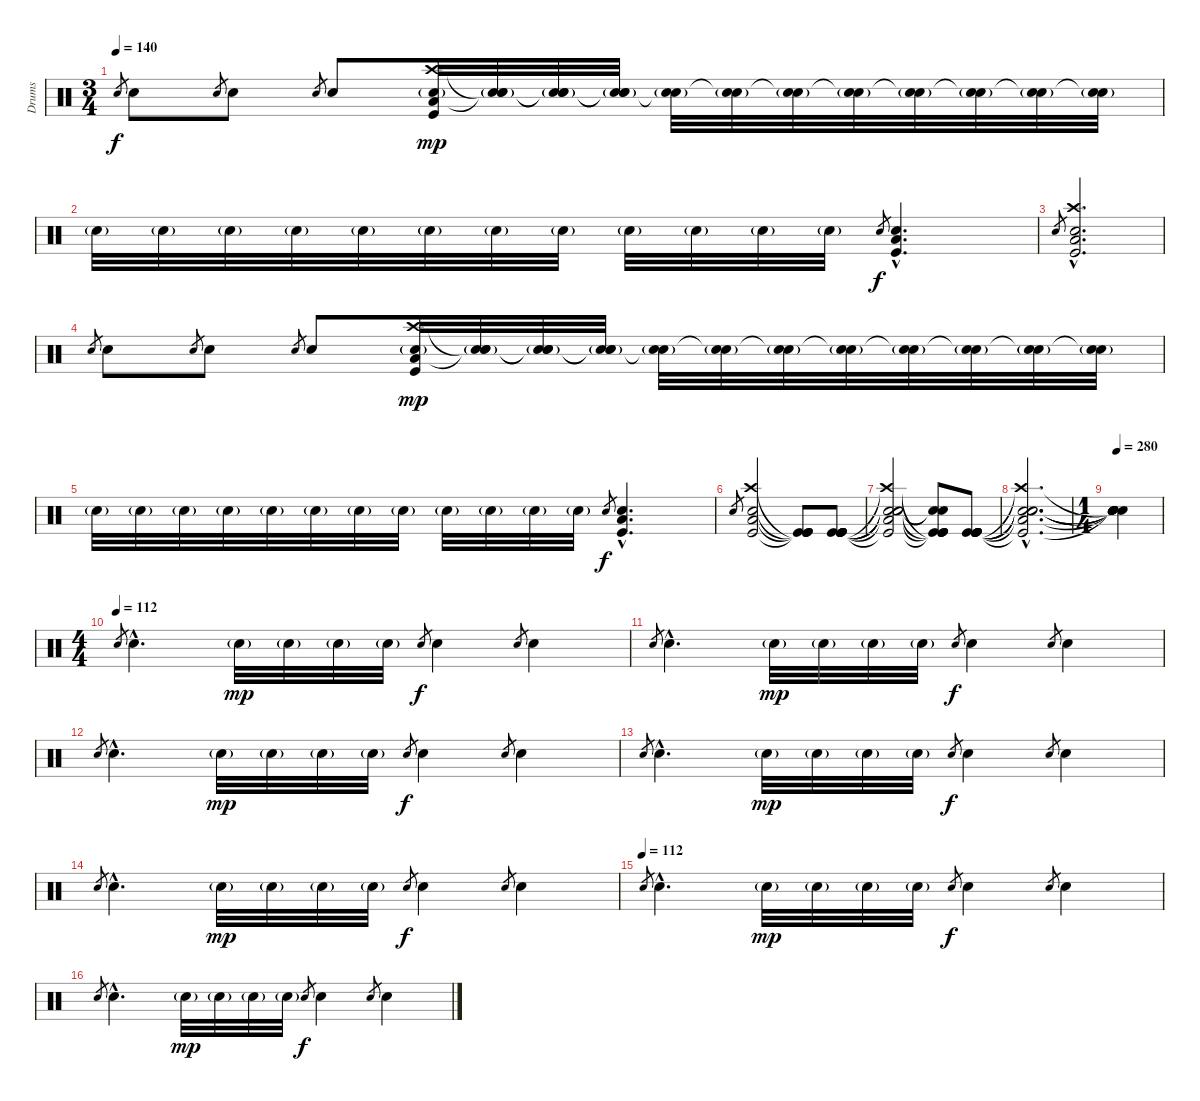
\track ("Drums" "Drums") {instrument percussion}
\staff {score}
\articulation defaults
\ts (3 4)
\tempo 140
\clef neutral
\ks c "Snare (hit) 2".8{gr dy f} "Snare (hit) 2".8 "Snare (hit) 2".8{gr} "Snare (hit) 2".8 "Snare (hit) 2".8{gr} "Snare (hit) 2".8
("Crash high (hit)" "Snare (hit) 2"{g} "Low Floor Tom (hit)" "Kick (hit)").32{dy mp} ("Snare (hit)"{t} "Snare (hit) 2"{g} "Snare (hit)"{t}).32 ("Snare (hit)"{t} "Snare (hit) 2"{g} "Snare (hit)"{t}).32 ("Snare (hit)"{t} "Snare (hit) 2"{g} "Snare (hit)"{t}).32 ("Snare (hit)"{t} "Snare (hit) 2"{g}).32 ("Snare (hit)"{t} "Snare (hit) 2"{g}).32 ("Snare (hit)"{t} "Snare (hit) 2"{g}).32 ("Snare (hit)"{t} "Snare (hit) 2"{g}).32 ("Snare (hit)"{t} "Snare (hit) 2"{g}).32 ("Snare (hit)"{t} "Snare (hit) 2"{g}).32 ("Snare (hit)"{t} "Snare (hit) 2"{g}).32 ("Snare (hit)"{t} "Snare (hit) 2"{g}).32 |
"Snare (hit) 2"{g}.32 "Snare (hit) 2"{g}.32 "Snare (hit) 2"{g}.32 "Snare (hit) 2"{g}.32 "Snare (hit) 2"{g}.32 "Snare (hit) 2"{g}.32 "Snare (hit) 2"{g}.32 "Snare (hit) 2"{g}.32 "Snare (hit) 2"{g}.32 "Snare (hit) 2"{g}.32 "Snare (hit) 2"{g}.32 "Snare (hit) 2"{g}.32 "Snare (hit) 2".8{gr dy f} ("Snare (hit) 2"{hac} "Low Floor Tom (hit)"{hac} "Kick (hit)"{hac}).4{d} |
"Snare (hit) 2".8{gr} ("Crash high (hit)"{hac} "Snare (hit) 2"{hac} "Low Floor Tom (hit)"{hac} "Kick (hit)"{hac}).2{d} |
"Snare (hit) 2".8{gr} "Snare (hit) 2".8 "Snare (hit) 2".8{gr} "Snare (hit) 2".8 "Snare (hit) 2".8{gr} "Snare (hit) 2".8 ("Crash high (hit)" "Snare (hit) 2"{g} "Low Floor Tom (hit)" "Kick (hit)").32{dy mp} ("Snare (hit)"{t} "Snare (hit) 2"{g} "Snare (hit)"{t}).32 ("Snare (hit)"{t} "Snare (hit) 2"{g} "Snare (hit)"{t}).32 ("Snare (hit)"{t} "Snare (hit) 2"{g} "Snare (hit)"{t}).32 ("Snare (hit)"{t} "Snare (hit) 2"{g}).32 ("Snare (hit)"{t} "Snare (hit) 2"{g}).32 ("Snare (hit)"{t} "Snare (hit) 2"{g}).32 ("Snare (hit)"{t} "Snare (hit) 2"{g}).32 ("Snare (hit)"{t} "Snare (hit) 2"{g}).32 ("Snare (hit)"{t} "Snare (hit) 2"{g}).32 ("Snare (hit)"{t} "Snare (hit) 2"{g}).32 ("Snare (hit)"{t} "Snare (hit) 2"{g}).32 |
"Snare (hit) 2"{g}.32 "Snare (hit) 2"{g}.32 "Snare (hit) 2"{g}.32 "Snare (hit) 2"{g}.32 "Snare (hit) 2"{g}.32 "Snare (hit) 2"{g}.32 "Snare (hit) 2"{g}.32 "Snare (hit) 2"{g}.32 "Snare (hit) 2"{g}.32 "Snare (hit) 2"{g}.32 "Snare (hit) 2"{g}.32 "Snare (hit) 2"{g}.32 "Snare (hit) 2".8{gr dy f} ("Snare (hit) 2"{hac} "Low Floor Tom (hit)"{hac} "Kick (hit)"{hac}).4{d} |
"Snare (hit) 2".8{gr} ("Crash high (hit)" "Snare (hit) 2" "Low Floor Tom (hit)" "Kick (hit)").2 ("Kick (hit)"{t} "Kick (hit)"{t} "Kick (hit)"{t} "Kick (hit)"{t}).8 ("Kick (hit)" "Kick (hit)" "Kick (hit)" "Kick (hit)" "Kick (hit)" "Kick (hit)").8{volume 16} |
("Crash high (hit)"{t} "Snare (hit)"{t} "Snare (hit)"{t} "Snare (hit) 2"{t} "Low Floor Tom (hit)"{t} "Kick (hit)"{t}).2 ("Kick (hit)"{t} "Snare (hit)"{t} "Snare (hit)"{t} "Kick (hit)"{t} "Kick (hit)"{t} "Kick (hit)"{t}).8 ("Kick (hit)" "Kick (hit)" "Kick (hit)" "Kick (hit)" "Kick (hit)" "Kick (hit)").8 |
("Crash high (hit)"{hac t} "Snare (hit)"{hac t} "Snare (hit)"{hac t} "Snare (hit) 2"{hac t} "Low Floor Tom (hit)"{hac t} "Kick (hit)"{hac t}).2{d} |
\ts (1 4)
\tempo 280
("Snare (hit)"{t} "Snare (hit)"{t} "Snare (hit)"{t} "Snare (hit)"{t} "Snare (hit)"{t} "Snare (hit)"{t}).4 |
\ts (4 4)
\tempo (112)
"Snare (hit) 2".8{gr} "Snare (hit) 2"{hac}.4{d volume 10 balance 8} "Snare (hit) 2"{g}.32{dy mp} "Snare (hit) 2"{g}.32 "Snare (hit) 2"{g}.32 "Snare (hit) 2"{g}.32 "Snare (hit) 2".8{gr dy f} "Snare (hit) 2".4 "Snare (hit) 2".8{gr} "Snare (hit) 2".4 |
"Snare (hit) 2".8{gr} "Snare (hit) 2"{hac}.4{d} "Snare (hit) 2"{g}.32{dy mp} "Snare (hit) 2"{g}.32 "Snare (hit) 2"{g}.32 "Snare (hit) 2"{g}.32 "Snare (hit) 2".8{gr dy f} "Snare (hit) 2".4 "Snare (hit) 2".8{gr} "Snare (hit) 2".4 |
"Snare (hit) 2".8{gr} "Snare (hit) 2"{hac}.4{d} "Snare (hit) 2"{g}.32{dy mp} "Snare (hit) 2"{g}.32 "Snare (hit) 2"{g}.32 "Snare (hit) 2"{g}.32 "Snare (hit) 2".8{gr dy f} "Snare (hit) 2".4 "Snare (hit) 2".8{gr} "Snare (hit) 2".4 |
"Snare (hit) 2".8{gr} "Snare (hit) 2"{hac}.4{d} "Snare (hit) 2"{g}.32{dy mp} "Snare (hit) 2"{g}.32 "Snare (hit) 2"{g}.32 "Snare (hit) 2"{g}.32 "Snare (hit) 2".8{gr dy f} "Snare (hit) 2".4 "Snare (hit) 2".8{gr} "Snare (hit) 2".4 |
"Snare (hit) 2".8{gr} "Snare (hit) 2"{hac}.4{d} "Snare (hit) 2"{g}.32{dy mp} "Snare (hit) 2"{g}.32 "Snare (hit) 2"{g}.32 "Snare (hit) 2"{g}.32 "Snare (hit) 2".8{gr dy f} "Snare (hit) 2".4 "Snare (hit) 2".8{gr} "Snare (hit) 2".4 |
\tempo (112)
"Snare (hit) 2".8{gr} "Snare (hit) 2"{hac}.4{d} "Snare (hit) 2"{g}.32{dy mp} "Snare (hit) 2"{g}.32 "Snare (hit) 2"{g}.32 "Snare (hit) 2"{g}.32 "Snare (hit) 2".8{gr dy f} "Snare (hit) 2".4 "Snare (hit) 2".8{gr} "Snare (hit) 2".4 |
"Snare (hit) 2".8{gr} "Snare (hit) 2"{hac}.4{d} "Snare (hit) 2"{g}.32{dy mp} "Snare (hit) 2"{g}.32 "Snare (hit) 2"{g}.32 "Snare (hit) 2"{g}.32 "Snare (hit) 2".8{gr dy f} "Snare (hit) 2".4 "Snare (hit) 2".8{gr} "Snare (hit) 2".4
